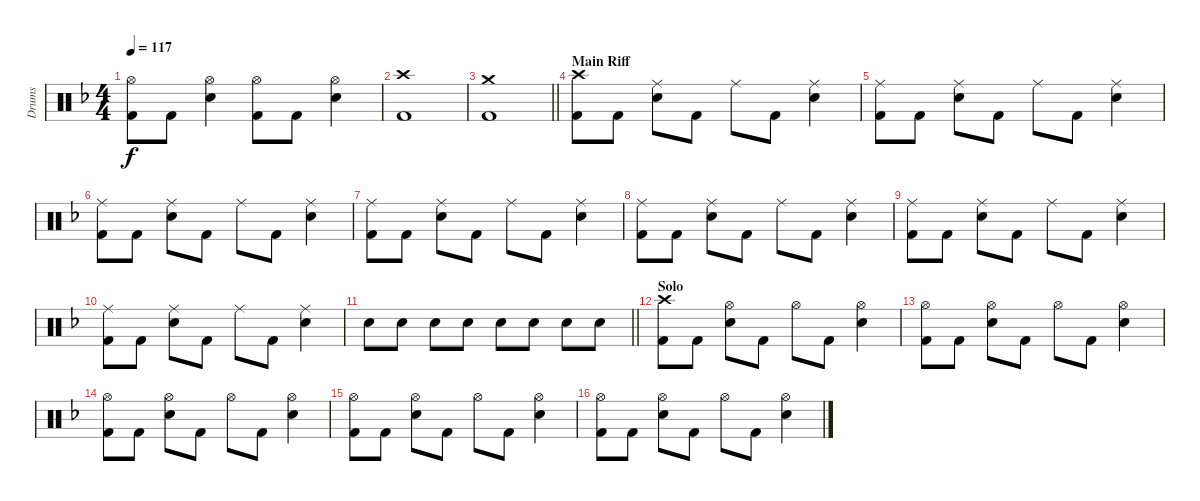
\track ("Drums" "Drums") {instrument percussion}
\staff {score}
\articulation defaults
\ts (4 4)
\tempo 117
\clef neutral
\ks dminor
("Hi-Hat (open)" "Kick (hit) 2").8{dy f} "Kick (hit) 2".8 ("Hi-Hat (open)" "Snare (hit) 2").4 ("Hi-Hat (open)" "Kick (hit) 2").8 "Kick (hit) 2".8 ("Hi-Hat (open)" "Snare (hit) 2").4 |
("Kick (hit) 2" "Crash high (hit)").1 |
\barLineRight lightlight
("Kick (hit) 2" "Crash medium (hit)").1 |
\section ("" "Main Riff")
("Kick (hit) 2" "Crash high (hit)").8 "Kick (hit) 2".8 ("Snare (hit) 2" "Ride (middle)").8 "Kick (hit) 2".8 "Ride (middle)".8 "Kick (hit) 2".8 ("Snare (hit) 2" "Ride (middle)").4 |
("Kick (hit) 2" "Ride (middle)").8 "Kick (hit) 2".8 ("Snare (hit) 2" "Ride (middle)").8 "Kick (hit) 2".8 "Ride (middle)".8 "Kick (hit) 2".8 ("Snare (hit) 2" "Ride (middle)").4 |
("Kick (hit) 2" "Ride (middle)").8 "Kick (hit) 2".8 ("Snare (hit) 2" "Ride (middle)").8 "Kick (hit) 2".8 "Ride (middle)".8 "Kick (hit) 2".8 ("Snare (hit) 2" "Ride (middle)").4 |
("Kick (hit) 2" "Ride (middle)").8 "Kick (hit) 2".8 ("Snare (hit) 2" "Ride (middle)").8 "Kick (hit) 2".8 "Ride (middle)".8 "Kick (hit) 2".8 ("Snare (hit) 2" "Ride (middle)").4 |
("Kick (hit) 2" "Ride (middle)").8 "Kick (hit) 2".8 ("Snare (hit) 2" "Ride (middle)").8 "Kick (hit) 2".8 "Ride (middle)".8 "Kick (hit) 2".8 ("Snare (hit) 2" "Ride (middle)").4 |
("Kick (hit) 2" "Ride (middle)").8 "Kick (hit) 2".8 ("Snare (hit) 2" "Ride (middle)").8 "Kick (hit) 2".8 "Ride (middle)".8 "Kick (hit) 2".8 ("Snare (hit) 2" "Ride (middle)").4 |
("Kick (hit) 2" "Ride (middle)").8 "Kick (hit) 2".8 ("Snare (hit) 2" "Ride (middle)").8 "Kick (hit) 2".8 "Ride (middle)".8 "Kick (hit) 2".8 ("Snare (hit) 2" "Ride (middle)").4 |
\barLineRight lightlight "Snare (hit) 2".8 "Snare (hit) 2".8 "Snare (hit) 2".8 "Snare (hit) 2".8 "Snare (hit) 2".8 "Snare (hit) 2".8 "Snare (hit) 2".8 "Snare (hit) 2".8
|
\section ("" "Solo")
("Kick (hit) 2" "Crash high (hit)").8 "Kick (hit) 2".8 ("Hi-Hat (open)" "Snare (hit) 2").8 "Kick (hit) 2".8 "Hi-Hat (open)".8 "Kick (hit) 2".8 ("Hi-Hat (open)" "Snare (hit) 2").4 |
("Hi-Hat (open)" "Kick (hit) 2").8 "Kick (hit) 2".8 ("Hi-Hat (open)" "Snare (hit) 2").8 "Kick (hit) 2".8 "Hi-Hat (open)".8 "Kick (hit) 2".8 ("Hi-Hat (open)" "Snare (hit) 2").4 |
("Hi-Hat (open)" "Kick (hit) 2").8 "Kick (hit) 2".8 ("Hi-Hat (open)" "Snare (hit) 2").8 "Kick (hit) 2".8 "Hi-Hat (open)".8 "Kick (hit) 2".8 ("Hi-Hat (open)" "Snare (hit) 2").4 |
("Hi-Hat (open)" "Kick (hit) 2").8 "Kick (hit) 2".8 ("Hi-Hat (open)" "Snare (hit) 2").8 "Kick (hit) 2".8 "Hi-Hat (open)".8 "Kick (hit) 2".8 ("Hi-Hat (open)" "Snare (hit) 2").4 |
("Hi-Hat (open)" "Kick (hit) 2").8 "Kick (hit) 2".8 ("Hi-Hat (open)" "Snare (hit) 2").8 "Kick (hit) 2".8 "Hi-Hat (open)".8 "Kick (hit) 2".8 ("Hi-Hat (open)" "Snare (hit) 2").4
